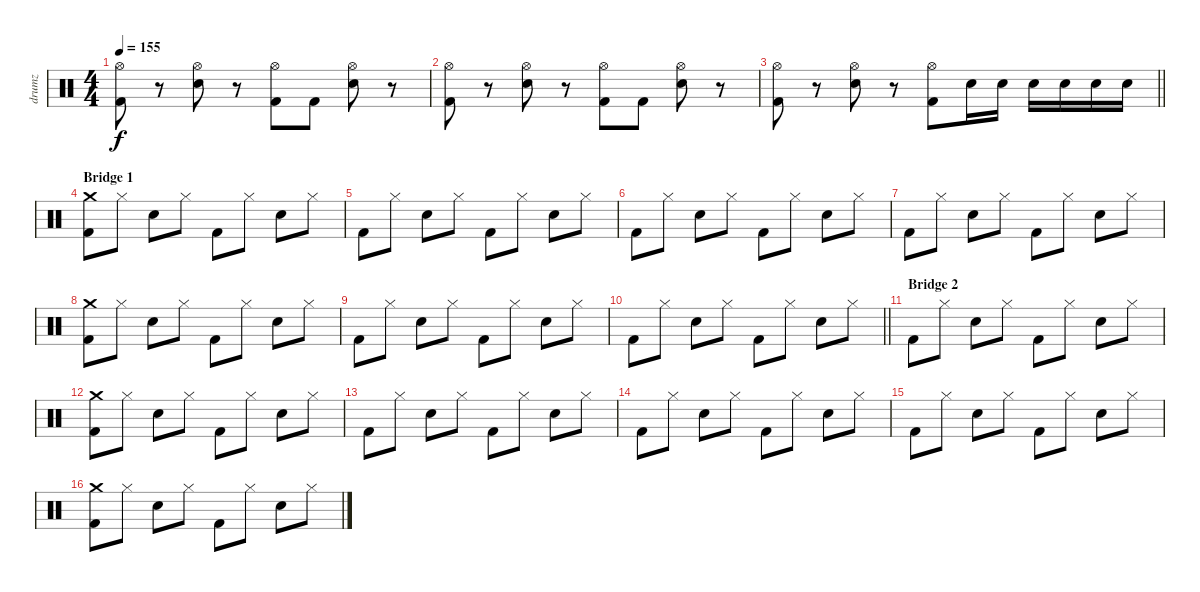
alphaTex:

\track ("drumz" "drumz") {instrument percussion}
\staff {score}
\articulation defaults
\ts (4 4)
\tempo 155
\clef neutral
\ks c
("Hi-Hat (open)" "Kick (hit) 2").8{dy f} r.8 ("Hi-Hat (open)" "Electric Snare (hit)").8 r.8 ("Hi-Hat (open)" "Kick (hit) 2").8 "Kick (hit) 2".8 ("Hi-Hat (open)" "Electric Snare (hit)").8 r.8 |
("Hi-Hat (open)" "Kick (hit) 2").8 r.8 ("Hi-Hat (open)" "Electric Snare (hit)").8 r.8 ("Hi-Hat (open)" "Kick (hit) 2").8 "Kick (hit) 2".8 ("Hi-Hat (open)" "Electric Snare (hit)").8 r.8 |
\barLineRight lightlight
("Hi-Hat (open)" "Kick (hit) 2").8 r.8 ("Hi-Hat (open)" "Electric Snare (hit)").8 r.8 ("Hi-Hat (open)" "Kick (hit) 2").8 "Electric Snare (hit)".16 "Electric Snare (hit)".16 "Electric Snare (hit)".16 "Electric Snare (hit)".16 "Electric Snare (hit)".16 "Electric Snare (hit)".16 |
\section ("" "Bridge 1")
("Crash medium (hit)" "Kick (hit) 2").8 "Hi-Hat (closed)".8 "Electric Snare (hit)".8 "Hi-Hat (closed)".8 "Kick (hit) 2".8 "Hi-Hat (closed)".8 "Electric Snare (hit)".8 "Hi-Hat (closed)".8 |
"Kick (hit) 2".8 "Hi-Hat (closed)".8 "Electric Snare (hit)".8 "Hi-Hat (closed)".8 "Kick (hit) 2".8 "Hi-Hat (closed)".8 "Electric Snare (hit)".8 "Hi-Hat (closed)".8 |
"Kick (hit) 2".8 "Hi-Hat (closed)".8 "Electric Snare (hit)".8 "Hi-Hat (closed)".8 "Kick (hit) 2".8 "Hi-Hat (closed)".8 "Electric Snare (hit)".8 "Hi-Hat (closed)".8 |
"Kick (hit) 2".8 "Hi-Hat (closed)".8 "Electric Snare (hit)".8 "Hi-Hat (closed)".8 "Kick (hit) 2".8 "Hi-Hat (closed)".8 "Electric Snare (hit)".8 "Hi-Hat (closed)".8 |
("Crash medium (hit)" "Kick (hit) 2").8 "Hi-Hat (closed)".8 "Electric Snare (hit)".8 "Hi-Hat (closed)".8 "Kick (hit) 2".8 "Hi-Hat (closed)".8 "Electric Snare (hit)".8 "Hi-Hat (closed)".8 |
"Kick (hit) 2".8 "Hi-Hat (closed)".8 "Electric Snare (hit)".8 "Hi-Hat (closed)".8 "Kick (hit) 2".8 "Hi-Hat (closed)".8 "Electric Snare (hit)".8 "Hi-Hat (closed)".8 |
\barLineRight lightlight "Kick (hit) 2".8 "Hi-Hat (closed)".8 "Electric Snare (hit)".8 "Hi-Hat (closed)".8 "Kick (hit) 2".8 "Hi-Hat (closed)".8 "Electric Snare (hit)".8 "Hi-Hat (closed)".8
|
\section ("" "Bridge 2")
"Kick (hit) 2".8 "Hi-Hat (closed)".8 "Electric Snare (hit)".8 "Hi-Hat (closed)".8 "Kick (hit) 2".8 "Hi-Hat (closed)".8 "Electric Snare (hit)".8 "Hi-Hat (closed)".8 |
("Crash medium (hit)" "Kick (hit) 2").8 "Hi-Hat (closed)".8 "Electric Snare (hit)".8 "Hi-Hat (closed)".8 "Kick (hit) 2".8 "Hi-Hat (closed)".8 "Electric Snare (hit)".8 "Hi-Hat (closed)".8 |
"Kick (hit) 2".8 "Hi-Hat (closed)".8 "Electric Snare (hit)".8 "Hi-Hat (closed)".8 "Kick (hit) 2".8 "Hi-Hat (closed)".8 "Electric Snare (hit)".8 "Hi-Hat (closed)".8 |
"Kick (hit) 2".8 "Hi-Hat (closed)".8 "Electric Snare (hit)".8 "Hi-Hat (closed)".8 "Kick (hit) 2".8 "Hi-Hat (closed)".8 "Electric Snare (hit)".8 "Hi-Hat (closed)".8 |
"Kick (hit) 2".8 "Hi-Hat (closed)".8 "Electric Snare (hit)".8 "Hi-Hat (closed)".8 "Kick (hit) 2".8 "Hi-Hat (closed)".8 "Electric Snare (hit)".8 "Hi-Hat (closed)".8 |
("Crash medium (hit)" "Kick (hit) 2").8 "Hi-Hat (closed)".8 "Electric Snare (hit)".8 "Hi-Hat (closed)".8 "Kick (hit) 2".8 "Hi-Hat (closed)".8 "Electric Snare (hit)".8 "Hi-Hat (closed)".8
